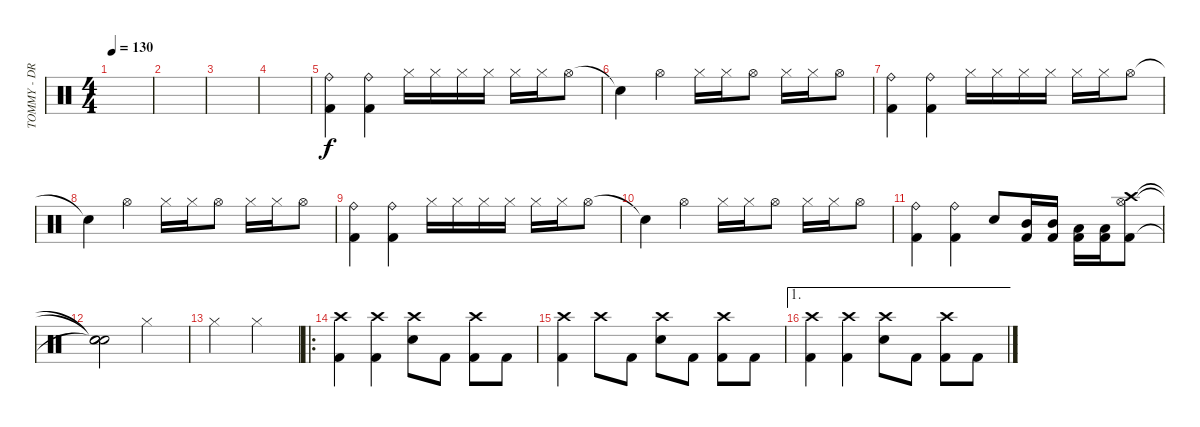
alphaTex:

\track ("TOMMY - DRUMS" "TOMMY - DR") {instrument percussion}
\staff {score}
\articulation defaults
\ts (4 4)
\tempo 130
\clef neutral
\ks c
|
|
|
|
("Ride (bell)" "Kick (hit) 2").4 ("Ride (bell)" "Kick (hit) 2").4 "Hi-Hat (closed)".16 "Hi-Hat (closed)".16 "Hi-Hat (closed)".16 "Hi-Hat (closed)".16 "Hi-Hat (closed)".16 "Hi-Hat (closed)".16 "Hi-Hat (open)".8 |
"Snare (hit)"{t}.4 "Hi-Hat (open)".4 "Hi-Hat (closed)".16 "Hi-Hat (closed)".16 "Hi-Hat (open)".8 "Hi-Hat (closed)".16 "Hi-Hat (closed)".16 "Hi-Hat (open)".8 |
("Ride (bell)" "Kick (hit) 2").4 ("Ride (bell)" "Kick (hit) 2").4 "Hi-Hat (closed)".16 "Hi-Hat (closed)".16 "Hi-Hat (closed)".16 "Hi-Hat (closed)".16 "Hi-Hat (closed)".16 "Hi-Hat (closed)".16 "Hi-Hat (open)".8 |
"Snare (hit)"{t}.4 "Hi-Hat (open)".4 "Hi-Hat (closed)".16 "Hi-Hat (closed)".16 "Hi-Hat (open)".8 "Hi-Hat (closed)".16 "Hi-Hat (closed)".16 "Hi-Hat (open)".8 |
("Ride (bell)" "Kick (hit) 2").4 ("Ride (bell)" "Kick (hit) 2").4 "Hi-Hat (closed)".16 "Hi-Hat (closed)".16 "Hi-Hat (closed)".16 "Hi-Hat (closed)".16 "Hi-Hat (closed)".16 "Hi-Hat (closed)".16 "Hi-Hat (open)".8 |
"Snare (hit)"{t}.4 "Hi-Hat (open)".4 "Hi-Hat (closed)".16 "Hi-Hat (closed)".16 "Hi-Hat (open)".8 "Hi-Hat (closed)".16 "Hi-Hat (closed)".16 "Hi-Hat (open)".8 |
("Ride (bell)" "Kick (hit) 2").4 ("Ride (bell)" "Kick (hit) 2").4 "Electric Snare (hit)".8 ("Mid Tom (hit)" "Kick (hit) 2").16 ("Mid Tom (hit)" "Kick (hit) 2").16 ("Low Tom (hit)" "Kick (hit) 2").16 ("Low Floor Tom (hit)" "Kick (hit) 2").16 ("Crash high (hit)" "Hi-Hat (open)" "Kick (hit) 2").8 |
("Snare (hit)"{t} "Snare (hit)"{t} "Snare (hit)"{t}).2 "Hi-Hat (closed)".2 |
"Hi-Hat (closed)".2 "Hi-Hat (closed)".2 |
\ro
("Crash high (hit)" "Kick (hit) 2").4 ("Crash high (hit)" "Kick (hit) 2").4 ("Crash high (hit)" "Electric Snare (hit)").8 "Kick (hit) 2".8 ("Crash high (hit)" "Kick (hit) 2").8 "Kick (hit) 2".8 |
("Crash high (hit)" "Kick (hit) 2").4 "Crash high (hit)".8 "Kick (hit) 2".8 ("Crash high (hit)" "Electric Snare (hit)").8 "Kick (hit) 2".8 ("Crash high (hit)" "Kick (hit) 2").8 "Kick (hit) 2".8 |
\ae 1
("Crash high (hit)" "Kick (hit) 2").4 ("Crash high (hit)" "Kick (hit) 2").4 ("Crash high (hit)" "Electric Snare (hit)").8 "Kick (hit) 2".8 ("Crash high (hit)" "Kick (hit) 2").8 "Kick (hit) 2".8
